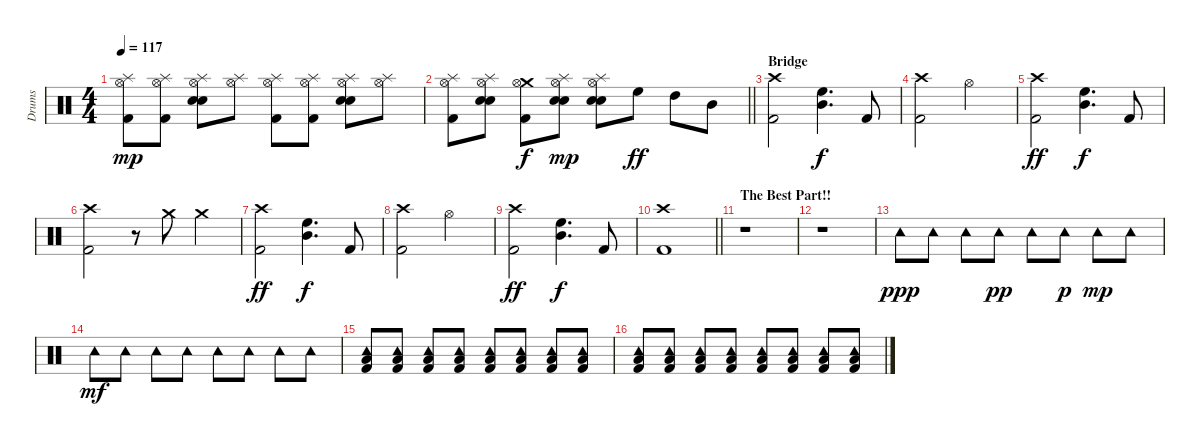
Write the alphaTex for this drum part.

\track ("Drums" "Drums") {instrument percussion}
\staff {score}
\articulation defaults
\ts (4 4)
\tempo 117
\clef neutral
\ks c
("Splash (hit)" "Hi-Hat (open)" "Kick (hit) 2").8{dy mp} ("Splash (hit)" "Hi-Hat (open)" "Kick (hit) 2").8 ("Splash (hit)" "Hi-Hat (open)" "Snare (hit) 2" "Snare (hit) 2").8 ("Splash (hit)" "Hi-Hat (open)").8 ("Splash (hit)" "Hi-Hat (open)" "Kick (hit) 2").8 ("Splash (hit)" "Hi-Hat (open)" "Kick (hit) 2").8 ("Splash (hit)" "Hi-Hat (open)" "Snare (hit) 2" "Snare (hit) 2").8 ("Splash (hit)" "Hi-Hat (open)").8 |
\barLineRight lightlight
("Splash (hit)" "Hi-Hat (open)" "Kick (hit) 2").8 ("Splash (hit)" "Hi-Hat (open)" "Snare (hit) 2" "Snare (hit) 2").8 ("Crash medium (hit)" "Hi-Hat (open)" "Kick (hit) 2").8{dy f} ("Splash (hit)" "Hi-Hat (open)" "Snare (hit) 2" "Snare (hit) 2").8{dy mp} ("Splash (hit)" "Hi-Hat (open)" "Snare (hit) 2" "Snare (hit) 2").8 "High Floor Tom (hit)".8{dy ff} "High Tom (hit)".8 "Mid Tom (hit)".8 |
\section ("" "Bridge")
("Crash high (hit)" "Kick (hit) 2").2 ("Mid Tom (hit)" "High Floor Tom (hit)").4{d dy f} "Kick (hit) 2".8 |
("Crash high (hit)" "Kick (hit) 2").2 "Hi-Hat (open)".2 |
("Crash high (hit)" "Kick (hit) 2").2{dy ff} ("Mid Tom (hit)" "High Floor Tom (hit)").4{d dy f} "Kick (hit) 2".8 |
("Crash high (hit)" "Kick (hit) 2").2 r.8 "Crash medium (hit)".8 "Crash medium (hit)".4 |
("Crash high (hit)" "Kick (hit) 2").2{dy ff} ("Mid Tom (hit)" "High Floor Tom (hit)").4{d dy f} "Kick (hit) 2".8 |
("Crash high (hit)" "Kick (hit) 2").2 "Hi-Hat (open)".2 |
("Crash high (hit)" "Kick (hit) 2").2{dy ff} ("Mid Tom (hit)" "High Floor Tom (hit)").4{d dy f} "Kick (hit) 2".8 |
\barLineRight lightlight
("Crash high (hit)" "Kick (hit) 2").1 |
\section ("" "The Best Part!!")
r.1 |
r.1 |
"Tambourine (hit)".8{dy ppp} "Tambourine (hit)".8 "Tambourine (hit)".8 "Tambourine (hit)".8{dy pp} "Tambourine (hit)".8 "Tambourine (hit)".8{dy p} "Tambourine (hit)".8{dy mp} "Tambourine (hit)".8 |
"Tambourine (hit)".8{dy mf} "Tambourine (hit)".8 "Tambourine (hit)".8 "Tambourine (hit)".8 "Tambourine (hit)".8 "Tambourine (hit)".8 "Tambourine (hit)".8 "Tambourine (hit)".8 |
("Tambourine (hit)" "Low Tom (hit)" "Kick (hit) 2").8 ("Tambourine (hit)" "Low Tom (hit)" "Kick (hit) 2").8 ("Tambourine (hit)" "Low Tom (hit)" "Kick (hit) 2").8 ("Tambourine (hit)" "Low Tom (hit)" "Kick (hit) 2").8 ("Tambourine (hit)" "Low Tom (hit)" "Kick (hit) 2").8 ("Tambourine (hit)" "Low Tom (hit)" "Kick (hit) 2").8 ("Tambourine (hit)" "Low Tom (hit)" "Kick (hit) 2").8 ("Tambourine (hit)" "Low Tom (hit)" "Kick (hit) 2").8 |
("Tambourine (hit)" "Low Tom (hit)" "Kick (hit) 2").8 ("Tambourine (hit)" "Low Tom (hit)" "Kick (hit) 2").8 ("Tambourine (hit)" "Low Tom (hit)" "Kick (hit) 2").8 ("Tambourine (hit)" "Low Tom (hit)" "Kick (hit) 2").8 ("Tambourine (hit)" "Low Tom (hit)" "Kick (hit) 2").8 ("Tambourine (hit)" "Low Tom (hit)" "Kick (hit) 2").8 ("Tambourine (hit)" "Low Tom (hit)" "Kick (hit) 2").8 ("Tambourine (hit)" "Low Tom (hit)" "Kick (hit) 2").8
